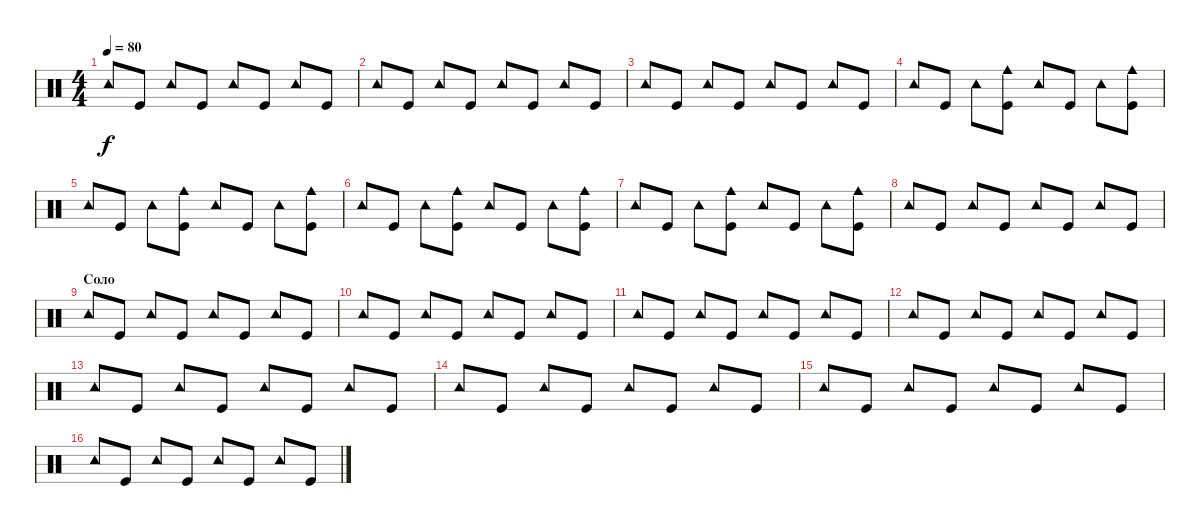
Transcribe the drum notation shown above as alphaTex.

\track "" {instrument percussion}
\staff {score}
\articulation defaults
\ts (4 4)
\tempo 80
\clef neutral
\ks c "Tambourine (hit)".8{dy f} "Kick (hit)".8 "Tambourine (hit)".8 "Kick (hit)".8 "Tambourine (hit)".8 "Kick (hit)".8 "Tambourine (hit)".8 "Kick (hit)".8
|
"Tambourine (hit)".8 "Kick (hit)".8 "Tambourine (hit)".8 "Kick (hit)".8 "Tambourine (hit)".8 "Kick (hit)".8 "Tambourine (hit)".8 "Kick (hit)".8 |
"Tambourine (hit)".8 "Kick (hit)".8 "Tambourine (hit)".8 "Kick (hit)".8 "Tambourine (hit)".8 "Kick (hit)".8 "Tambourine (hit)".8 "Kick (hit)".8 |
"Tambourine (hit)".8 "Kick (hit)".8 "Tambourine (hit)".8 ("Kick (hit)" "Cowbell medium (hit)").8 "Tambourine (hit)".8 "Kick (hit)".8 "Tambourine (hit)".8 ("Kick (hit)" "Cowbell medium (hit)").8 |
"Tambourine (hit)".8 "Kick (hit)".8 "Tambourine (hit)".8 ("Kick (hit)" "Cowbell medium (hit)").8 "Tambourine (hit)".8 "Kick (hit)".8 "Tambourine (hit)".8 ("Kick (hit)" "Cowbell medium (hit)").8 |
"Tambourine (hit)".8 "Kick (hit)".8 "Tambourine (hit)".8 ("Kick (hit)" "Cowbell medium (hit)").8 "Tambourine (hit)".8 "Kick (hit)".8 "Tambourine (hit)".8 ("Kick (hit)" "Cowbell medium (hit)").8 |
"Tambourine (hit)".8 "Kick (hit)".8 "Tambourine (hit)".8 ("Kick (hit)" "Cowbell medium (hit)").8 "Tambourine (hit)".8 "Kick (hit)".8 "Tambourine (hit)".8 ("Kick (hit)" "Cowbell medium (hit)").8 |
"Tambourine (hit)".8 "Kick (hit)".8 "Tambourine (hit)".8 "Kick (hit)".8 "Tambourine (hit)".8 "Kick (hit)".8 "Tambourine (hit)".8 "Kick (hit)".8 |
\section ("" "Соло")
"Tambourine (hit)".8 "Kick (hit)".8 "Tambourine (hit)".8 "Kick (hit)".8 "Tambourine (hit)".8 "Kick (hit)".8 "Tambourine (hit)".8 "Kick (hit)".8 |
"Tambourine (hit)".8 "Kick (hit)".8 "Tambourine (hit)".8 "Kick (hit)".8 "Tambourine (hit)".8 "Kick (hit)".8 "Tambourine (hit)".8 "Kick (hit)".8 |
"Tambourine (hit)".8 "Kick (hit)".8 "Tambourine (hit)".8 "Kick (hit)".8 "Tambourine (hit)".8 "Kick (hit)".8 "Tambourine (hit)".8 "Kick (hit)".8 |
"Tambourine (hit)".8 "Kick (hit)".8 "Tambourine (hit)".8 "Kick (hit)".8 "Tambourine (hit)".8 "Kick (hit)".8 "Tambourine (hit)".8 "Kick (hit)".8 |
"Tambourine (hit)".8 "Kick (hit)".8 "Tambourine (hit)".8 "Kick (hit)".8 "Tambourine (hit)".8 "Kick (hit)".8 "Tambourine (hit)".8 "Kick (hit)".8 |
"Tambourine (hit)".8 "Kick (hit)".8 "Tambourine (hit)".8 "Kick (hit)".8 "Tambourine (hit)".8 "Kick (hit)".8 "Tambourine (hit)".8 "Kick (hit)".8 |
"Tambourine (hit)".8 "Kick (hit)".8 "Tambourine (hit)".8 "Kick (hit)".8 "Tambourine (hit)".8 "Kick (hit)".8 "Tambourine (hit)".8 "Kick (hit)".8 |
"Tambourine (hit)".8 "Kick (hit)".8 "Tambourine (hit)".8 "Kick (hit)".8 "Tambourine (hit)".8 "Kick (hit)".8 "Tambourine (hit)".8 "Kick (hit)".8
